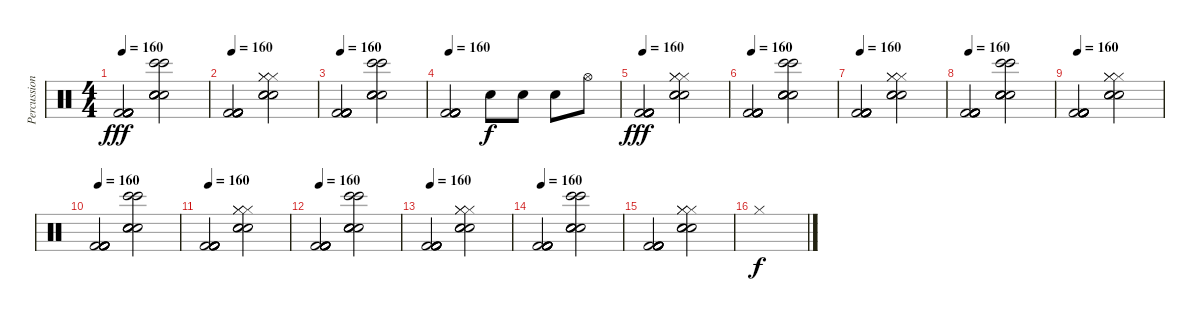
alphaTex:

\track ("Percussion" "Percussion") {instrument percussion}
\staff {score}
\articulation defaults
\ts (4 4)
\tempo 160
\clef neutral
\ks c
("Kick (hit) 2" "Kick (hit) 2" "Kick (hit) 2" "Kick (hit) 2" "Kick (hit) 2" "Kick (hit) 2").2{dy fff} ("Hand Clap (hit)" "Hand Clap (hit)" "Electric Snare (hit)" "Hand Clap (hit)" "Bongo High (hit)" "Bongo High (hit)").2 |
\tempo 160
("Kick (hit) 2" "Kick (hit) 2" "Kick (hit) 2" "Kick (hit) 2" "Kick (hit) 2" "Kick (hit) 2").2 ("Snare (hit) 2" "Snare (hit) 2" "Snare (hit) 2" "Hi-Hat (closed)" "Hi-Hat (closed)" "Hi-Hat (closed)").2 |
\tempo 160
("Kick (hit) 2" "Kick (hit) 2" "Kick (hit) 2" "Kick (hit) 2" "Kick (hit) 2" "Kick (hit) 2").2 ("Hand Clap (hit)" "Hand Clap (hit)" "Electric Snare (hit)" "Hand Clap (hit)" "Bongo High (hit)" "Bongo High (hit)").2 |
\tempo 160
("Kick (hit) 2" "Kick (hit) 2" "Kick (hit) 2" "Kick (hit) 2" "Kick (hit) 2" "Kick (hit) 2").2 "Snare (hit) 2".8{dy f} "Snare (hit) 2".8 "Snare (hit) 2".8 "Hi-Hat (open)".8 |
\tempo 160
("Kick (hit) 2" "Kick (hit) 2" "Kick (hit) 2" "Kick (hit) 2" "Kick (hit) 2" "Kick (hit) 2").2{dy fff} ("Snare (hit) 2" "Snare (hit) 2" "Snare (hit) 2" "Hi-Hat (closed)" "Hi-Hat (closed)" "Hi-Hat (closed)").2 |
\tempo 160
("Kick (hit) 2" "Kick (hit) 2" "Kick (hit) 2" "Kick (hit) 2" "Kick (hit) 2" "Kick (hit) 2").2 ("Hand Clap (hit)" "Hand Clap (hit)" "Electric Snare (hit)" "Hand Clap (hit)" "Bongo High (hit)" "Bongo High (hit)").2 |
\tempo 160
("Kick (hit) 2" "Kick (hit) 2" "Kick (hit) 2" "Kick (hit) 2" "Kick (hit) 2" "Kick (hit) 2").2 ("Snare (hit) 2" "Snare (hit) 2" "Snare (hit) 2" "Hi-Hat (closed)" "Hi-Hat (closed)" "Hi-Hat (closed)").2 |
\tempo 160
("Kick (hit) 2" "Kick (hit) 2" "Kick (hit) 2" "Kick (hit) 2" "Kick (hit) 2" "Kick (hit) 2").2 ("Hand Clap (hit)" "Hand Clap (hit)" "Electric Snare (hit)" "Hand Clap (hit)" "Bongo High (hit)" "Bongo High (hit)").2 |
\tempo 160
("Kick (hit) 2" "Kick (hit) 2" "Kick (hit) 2" "Kick (hit) 2" "Kick (hit) 2" "Kick (hit) 2").2 ("Snare (hit) 2" "Snare (hit) 2" "Snare (hit) 2" "Hi-Hat (closed)" "Hi-Hat (closed)" "Hi-Hat (closed)").2 |
\tempo 160
("Kick (hit) 2" "Kick (hit) 2" "Kick (hit) 2" "Kick (hit) 2" "Kick (hit) 2" "Kick (hit) 2").2 ("Hand Clap (hit)" "Hand Clap (hit)" "Electric Snare (hit)" "Hand Clap (hit)" "Bongo High (hit)" "Bongo High (hit)").2 |
\tempo 160
("Kick (hit) 2" "Kick (hit) 2" "Kick (hit) 2" "Kick (hit) 2" "Kick (hit) 2" "Kick (hit) 2").2 ("Snare (hit) 2" "Snare (hit) 2" "Snare (hit) 2" "Hi-Hat (closed)" "Hi-Hat (closed)" "Hi-Hat (closed)").2 |
\tempo 160
("Kick (hit) 2" "Kick (hit) 2" "Kick (hit) 2" "Kick (hit) 2" "Kick (hit) 2" "Kick (hit) 2").2 ("Hand Clap (hit)" "Hand Clap (hit)" "Electric Snare (hit)" "Hand Clap (hit)" "Bongo High (hit)" "Bongo High (hit)").2 |
\tempo 160
("Kick (hit) 2" "Kick (hit) 2" "Kick (hit) 2" "Kick (hit) 2" "Kick (hit) 2" "Kick (hit) 2").2 ("Snare (hit) 2" "Snare (hit) 2" "Snare (hit) 2" "Hi-Hat (closed)" "Hi-Hat (closed)" "Hi-Hat (closed)").2 |
\tempo 160
("Kick (hit) 2" "Kick (hit) 2" "Kick (hit) 2" "Kick (hit) 2" "Kick (hit) 2" "Kick (hit) 2").2 ("Hand Clap (hit)" "Hand Clap (hit)" "Electric Snare (hit)" "Hand Clap (hit)" "Bongo High (hit)" "Bongo High (hit)").2 |
("Kick (hit) 2" "Kick (hit) 2" "Kick (hit) 2" "Kick (hit) 2" "Kick (hit) 2" "Kick (hit) 2").2 ("Snare (hit) 2" "Snare (hit) 2" "Snare (hit) 2" "Hi-Hat (closed)" "Hi-Hat (closed)" "Hi-Hat (closed)").2 |
"Hi-Hat (closed)".1{dy f}
